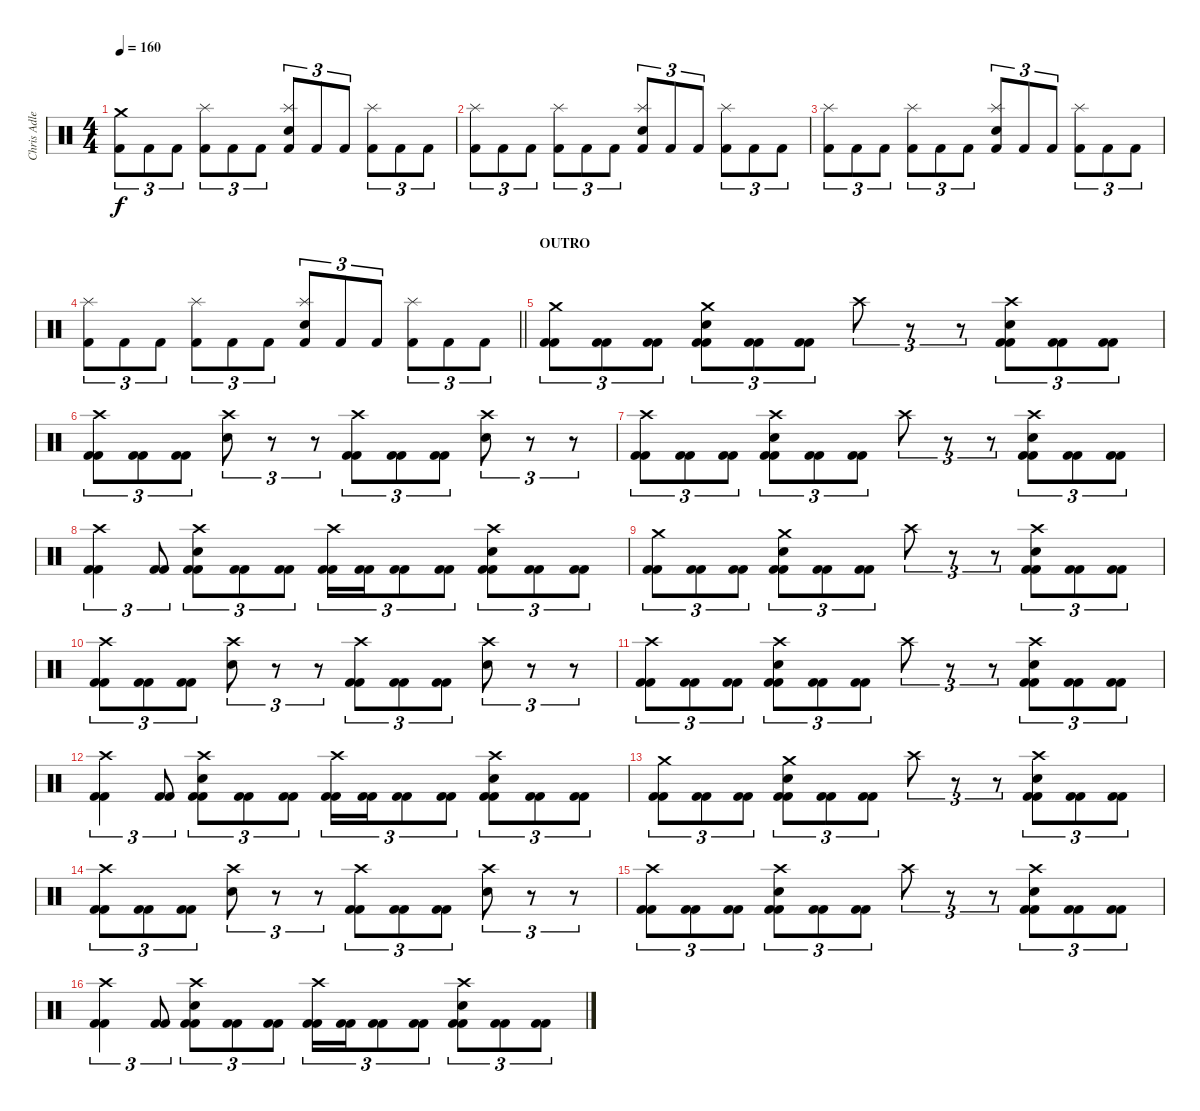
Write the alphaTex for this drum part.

\track ("Chris Adler" "Chris Adle") {instrument percussion}
\staff {score}
\articulation defaults
\ts (4 4)
\tempo 160
\clef neutral
\ks c
("Crash medium (hit)" "Kick (hit) 2").8{tu (3 2) dy f} "Kick (hit) 2".8{tu (3 2)} "Kick (hit) 2".8{tu (3 2)} ("Splash (hit)" "Kick (hit) 2").8{tu (3 2)} "Kick (hit) 2".8{tu (3 2)} "Kick (hit) 2".8{tu (3 2)} ("Splash (hit)" "Snare (hit) 2" "Kick (hit) 2").8{tu (3 2)} "Kick (hit) 2".8{tu (3 2)} "Kick (hit) 2".8{tu (3 2)} ("Splash (hit)" "Kick (hit) 2").8{tu (3 2)} "Kick (hit) 2".8{tu (3 2)} "Kick (hit) 2".8{tu (3 2)} |
("Splash (hit)" "Kick (hit) 2").8{tu (3 2)} "Kick (hit) 2".8{tu (3 2)} "Kick (hit) 2".8{tu (3 2)} ("Splash (hit)" "Kick (hit) 2").8{tu (3 2)} "Kick (hit) 2".8{tu (3 2)} "Kick (hit) 2".8{tu (3 2)} ("Splash (hit)" "Snare (hit) 2" "Kick (hit) 2").8{tu (3 2)} "Kick (hit) 2".8{tu (3 2)} "Kick (hit) 2".8{tu (3 2)} ("Splash (hit)" "Kick (hit) 2").8{tu (3 2)} "Kick (hit) 2".8{tu (3 2)} "Kick (hit) 2".8{tu (3 2)} |
("Splash (hit)" "Kick (hit) 2").8{tu (3 2)} "Kick (hit) 2".8{tu (3 2)} "Kick (hit) 2".8{tu (3 2)} ("Splash (hit)" "Kick (hit) 2").8{tu (3 2)} "Kick (hit) 2".8{tu (3 2)} "Kick (hit) 2".8{tu (3 2)} ("Splash (hit)" "Snare (hit) 2" "Kick (hit) 2").8{tu (3 2)} "Kick (hit) 2".8{tu (3 2)} "Kick (hit) 2".8{tu (3 2)} ("Splash (hit)" "Kick (hit) 2").8{tu (3 2)} "Kick (hit) 2".8{tu (3 2)} "Kick (hit) 2".8{tu (3 2)} |
\barLineRight lightlight
("Splash (hit)" "Kick (hit) 2").8{tu (3 2)} "Kick (hit) 2".8{tu (3 2)} "Kick (hit) 2".8{tu (3 2)} ("Splash (hit)" "Kick (hit) 2").8{tu (3 2)} "Kick (hit) 2".8{tu (3 2)} "Kick (hit) 2".8{tu (3 2)} ("Splash (hit)" "Snare (hit) 2" "Kick (hit) 2").8{tu (3 2)} "Kick (hit) 2".8{tu (3 2)} "Kick (hit) 2".8{tu (3 2)} ("Splash (hit)" "Kick (hit) 2").8{tu (3 2)} "Kick (hit) 2".8{tu (3 2)} "Kick (hit) 2".8{tu (3 2)} |
\section ("" "OUTRO")
("Crash medium (hit)" "Kick (hit) 2" "Kick (hit) 2").8{tu (3 2)} ("Kick (hit) 2" "Kick (hit) 2").8{tu (3 2)} ("Kick (hit) 2" "Kick (hit) 2").8{tu (3 2)} ("Crash medium (hit)" "Kick (hit) 2" "Snare (hit) 2" "Kick (hit) 2").8{tu (3 2)} ("Kick (hit) 2" "Kick (hit) 2").8{tu (3 2)} ("Kick (hit) 2" "Kick (hit) 2").8{tu (3 2)} "Crash high (hit)".8{tu (3 2)} r.8{tu (3 2)} r.8{tu (3 2)} ("Crash high (hit)" "Kick (hit) 2" "Snare (hit) 2" "Kick (hit) 2").8{tu (3 2)} ("Kick (hit) 2" "Kick (hit) 2").8{tu (3 2)} ("Kick (hit) 2" "Kick (hit) 2").8{tu (3 2)} |
("Crash high (hit)" "Kick (hit) 2" "Kick (hit) 2").8{tu (3 2)} ("Kick (hit) 2" "Kick (hit) 2").8{tu (3 2)} ("Kick (hit) 2" "Kick (hit) 2").8{tu (3 2)} ("Crash high (hit)" "Snare (hit) 2").8{tu (3 2)} r.8{tu (3 2)} r.8{tu (3 2)} ("Crash high (hit)" "Kick (hit) 2" "Kick (hit) 2").8{tu (3 2)} ("Kick (hit) 2" "Kick (hit) 2").8{tu (3 2)} ("Kick (hit) 2" "Kick (hit) 2").8{tu (3 2)} ("Crash high (hit)" "Snare (hit) 2").8{tu (3 2)} r.8{tu (3 2)} r.8{tu (3 2)} |
("Crash high (hit)" "Kick (hit) 2" "Kick (hit) 2").8{tu (3 2)} ("Kick (hit) 2" "Kick (hit) 2").8{tu (3 2)} ("Kick (hit) 2" "Kick (hit) 2").8{tu (3 2)} ("Crash high (hit)" "Kick (hit) 2" "Snare (hit) 2" "Kick (hit) 2").8{tu (3 2)} ("Kick (hit) 2" "Kick (hit) 2").8{tu (3 2)} ("Kick (hit) 2" "Kick (hit) 2").8{tu (3 2)} "Crash high (hit)".8{tu (3 2)} r.8{tu (3 2)} r.8{tu (3 2)} ("Crash high (hit)" "Kick (hit) 2" "Snare (hit) 2" "Kick (hit) 2").8{tu (3 2)} ("Kick (hit) 2" "Kick (hit) 2").8{tu (3 2)} ("Kick (hit) 2" "Kick (hit) 2").8{tu (3 2)} |
("Crash high (hit)" "Kick (hit) 2" "Kick (hit) 2").4{tu (3 2)} ("Kick (hit) 2" "Kick (hit) 2").8{tu (3 2)} ("Crash high (hit)" "Kick (hit) 2" "Snare (hit) 2" "Kick (hit) 2").8{tu (3 2)} ("Kick (hit) 2" "Kick (hit) 2").8{tu (3 2)} ("Kick (hit) 2" "Kick (hit) 2").8{tu (3 2)} ("Crash high (hit)" "Kick (hit) 2" "Kick (hit) 2").16{tu (3 2)} ("Kick (hit) 2" "Kick (hit) 2").16{tu (3 2)} ("Kick (hit) 2" "Kick (hit) 2").8{tu (3 2)} ("Kick (hit) 2" "Kick (hit) 2").8{tu (3 2)} ("Crash high (hit)" "Kick (hit) 2" "Snare (hit) 2" "Kick (hit) 2").8{tu (3 2)} ("Kick (hit) 2" "Kick (hit) 2").8{tu (3 2)} ("Kick (hit) 2" "Kick (hit) 2").8{tu (3 2)} |
("Crash medium (hit)" "Kick (hit) 2" "Kick (hit) 2").8{tu (3 2)} ("Kick (hit) 2" "Kick (hit) 2").8{tu (3 2)} ("Kick (hit) 2" "Kick (hit) 2").8{tu (3 2)} ("Crash medium (hit)" "Kick (hit) 2" "Snare (hit) 2" "Kick (hit) 2").8{tu (3 2)} ("Kick (hit) 2" "Kick (hit) 2").8{tu (3 2)} ("Kick (hit) 2" "Kick (hit) 2").8{tu (3 2)} "Crash high (hit)".8{tu (3 2)} r.8{tu (3 2)} r.8{tu (3 2)} ("Crash high (hit)" "Kick (hit) 2" "Snare (hit) 2" "Kick (hit) 2").8{tu (3 2)} ("Kick (hit) 2" "Kick (hit) 2").8{tu (3 2)} ("Kick (hit) 2" "Kick (hit) 2").8{tu (3 2)} |
("Crash high (hit)" "Kick (hit) 2" "Kick (hit) 2").8{tu (3 2)} ("Kick (hit) 2" "Kick (hit) 2").8{tu (3 2)} ("Kick (hit) 2" "Kick (hit) 2").8{tu (3 2)} ("Crash high (hit)" "Snare (hit) 2").8{tu (3 2)} r.8{tu (3 2)} r.8{tu (3 2)} ("Crash high (hit)" "Kick (hit) 2" "Kick (hit) 2").8{tu (3 2)} ("Kick (hit) 2" "Kick (hit) 2").8{tu (3 2)} ("Kick (hit) 2" "Kick (hit) 2").8{tu (3 2)} ("Crash high (hit)" "Snare (hit) 2").8{tu (3 2)} r.8{tu (3 2)} r.8{tu (3 2)} |
("Crash high (hit)" "Kick (hit) 2" "Kick (hit) 2").8{tu (3 2)} ("Kick (hit) 2" "Kick (hit) 2").8{tu (3 2)} ("Kick (hit) 2" "Kick (hit) 2").8{tu (3 2)} ("Crash high (hit)" "Kick (hit) 2" "Snare (hit) 2" "Kick (hit) 2").8{tu (3 2)} ("Kick (hit) 2" "Kick (hit) 2").8{tu (3 2)} ("Kick (hit) 2" "Kick (hit) 2").8{tu (3 2)} "Crash high (hit)".8{tu (3 2)} r.8{tu (3 2)} r.8{tu (3 2)} ("Crash high (hit)" "Kick (hit) 2" "Snare (hit) 2" "Kick (hit) 2").8{tu (3 2)} ("Kick (hit) 2" "Kick (hit) 2").8{tu (3 2)} ("Kick (hit) 2" "Kick (hit) 2").8{tu (3 2)} |
("Crash high (hit)" "Kick (hit) 2" "Kick (hit) 2").4{tu (3 2)} ("Kick (hit) 2" "Kick (hit) 2").8{tu (3 2)} ("Crash high (hit)" "Kick (hit) 2" "Snare (hit) 2" "Kick (hit) 2").8{tu (3 2)} ("Kick (hit) 2" "Kick (hit) 2").8{tu (3 2)} ("Kick (hit) 2" "Kick (hit) 2").8{tu (3 2)} ("Crash high (hit)" "Kick (hit) 2" "Kick (hit) 2").16{tu (3 2)} ("Kick (hit) 2" "Kick (hit) 2").16{tu (3 2)} ("Kick (hit) 2" "Kick (hit) 2").8{tu (3 2)} ("Kick (hit) 2" "Kick (hit) 2").8{tu (3 2)} ("Crash high (hit)" "Kick (hit) 2" "Snare (hit) 2" "Kick (hit) 2").8{tu (3 2)} ("Kick (hit) 2" "Kick (hit) 2").8{tu (3 2)} ("Kick (hit) 2" "Kick (hit) 2").8{tu (3 2)} |
("Crash medium (hit)" "Kick (hit) 2" "Kick (hit) 2").8{tu (3 2)} ("Kick (hit) 2" "Kick (hit) 2").8{tu (3 2)} ("Kick (hit) 2" "Kick (hit) 2").8{tu (3 2)} ("Crash medium (hit)" "Kick (hit) 2" "Snare (hit) 2" "Kick (hit) 2").8{tu (3 2)} ("Kick (hit) 2" "Kick (hit) 2").8{tu (3 2)} ("Kick (hit) 2" "Kick (hit) 2").8{tu (3 2)} "Crash high (hit)".8{tu (3 2)} r.8{tu (3 2)} r.8{tu (3 2)} ("Crash high (hit)" "Kick (hit) 2" "Snare (hit) 2" "Kick (hit) 2").8{tu (3 2)} ("Kick (hit) 2" "Kick (hit) 2").8{tu (3 2)} ("Kick (hit) 2" "Kick (hit) 2").8{tu (3 2)} |
("Crash high (hit)" "Kick (hit) 2" "Kick (hit) 2").8{tu (3 2)} ("Kick (hit) 2" "Kick (hit) 2").8{tu (3 2)} ("Kick (hit) 2" "Kick (hit) 2").8{tu (3 2)} ("Crash high (hit)" "Snare (hit) 2").8{tu (3 2)} r.8{tu (3 2)} r.8{tu (3 2)} ("Crash high (hit)" "Kick (hit) 2" "Kick (hit) 2").8{tu (3 2)} ("Kick (hit) 2" "Kick (hit) 2").8{tu (3 2)} ("Kick (hit) 2" "Kick (hit) 2").8{tu (3 2)} ("Crash high (hit)" "Snare (hit) 2").8{tu (3 2)} r.8{tu (3 2)} r.8{tu (3 2)} |
("Crash high (hit)" "Kick (hit) 2" "Kick (hit) 2").8{tu (3 2)} ("Kick (hit) 2" "Kick (hit) 2").8{tu (3 2)} ("Kick (hit) 2" "Kick (hit) 2").8{tu (3 2)} ("Crash high (hit)" "Kick (hit) 2" "Snare (hit) 2" "Kick (hit) 2").8{tu (3 2)} ("Kick (hit) 2" "Kick (hit) 2").8{tu (3 2)} ("Kick (hit) 2" "Kick (hit) 2").8{tu (3 2)} "Crash high (hit)".8{tu (3 2)} r.8{tu (3 2)} r.8{tu (3 2)} ("Crash high (hit)" "Kick (hit) 2" "Snare (hit) 2" "Kick (hit) 2").8{tu (3 2)} ("Kick (hit) 2" "Kick (hit) 2").8{tu (3 2)} ("Kick (hit) 2" "Kick (hit) 2").8{tu (3 2)} |
("Crash high (hit)" "Kick (hit) 2" "Kick (hit) 2").4{tu (3 2)} ("Kick (hit) 2" "Kick (hit) 2").8{tu (3 2)} ("Crash high (hit)" "Kick (hit) 2" "Snare (hit) 2" "Kick (hit) 2").8{tu (3 2)} ("Kick (hit) 2" "Kick (hit) 2").8{tu (3 2)} ("Kick (hit) 2" "Kick (hit) 2").8{tu (3 2)} ("Crash high (hit)" "Kick (hit) 2" "Kick (hit) 2").16{tu (3 2)} ("Kick (hit) 2" "Kick (hit) 2").16{tu (3 2)} ("Kick (hit) 2" "Kick (hit) 2").8{tu (3 2)} ("Kick (hit) 2" "Kick (hit) 2").8{tu (3 2)} ("Crash high (hit)" "Kick (hit) 2" "Snare (hit) 2" "Kick (hit) 2").8{tu (3 2)} ("Kick (hit) 2" "Kick (hit) 2").8{tu (3 2)} ("Kick (hit) 2" "Kick (hit) 2").8{tu (3 2)}
